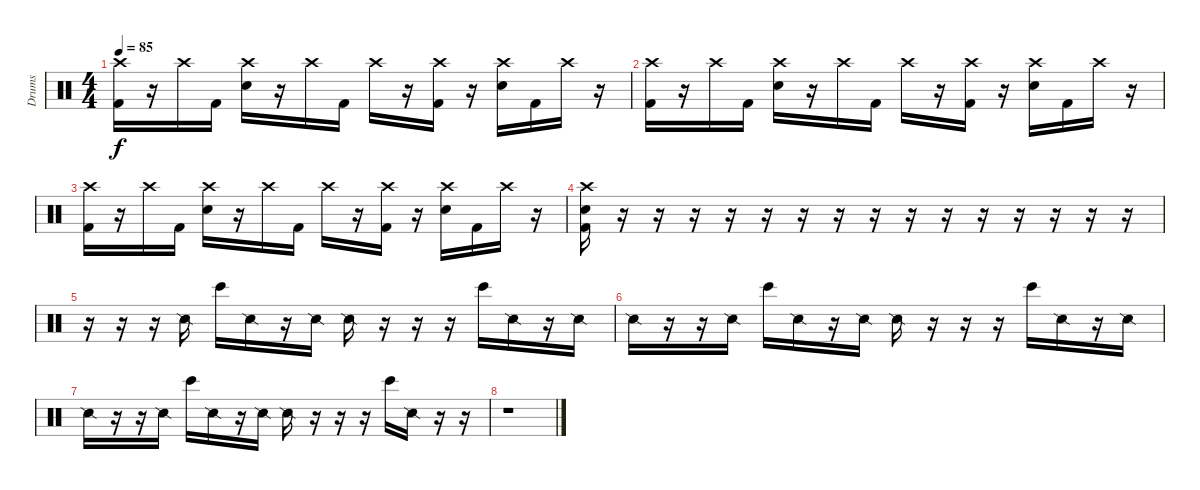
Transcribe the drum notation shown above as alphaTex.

\track ("Drums" "Drums") {instrument percussion}
\staff {score}
\articulation defaults
\ts (4 4)
\tempo 85
\clef neutral
\ks c
("Crash high (hit)" "Kick (hit) 2").16{dy f} r.16 "Crash high (hit)".16 "Kick (hit) 2".16 ("Crash high (hit)" "Electric Snare (hit)").16 r.16 "Crash high (hit)".16 "Kick (hit) 2".16 "Crash high (hit)".16 r.16 ("Crash high (hit)" "Kick (hit) 2").16 r.16 ("Crash high (hit)" "Electric Snare (hit)").16 "Kick (hit) 2".16 "Crash high (hit)".16 r.16 |
("Crash high (hit)" "Kick (hit) 2").16 r.16 "Crash high (hit)".16 "Kick (hit) 2".16 ("Crash high (hit)" "Electric Snare (hit)").16 r.16 "Crash high (hit)".16 "Kick (hit) 2".16 "Crash high (hit)".16 r.16 ("Crash high (hit)" "Kick (hit) 2").16 r.16 ("Crash high (hit)" "Electric Snare (hit)").16 "Kick (hit) 2".16 "Crash high (hit)".16 r.16 |
("Crash high (hit)" "Kick (hit) 2").16 r.16 "Crash high (hit)".16 "Kick (hit) 2".16 ("Crash high (hit)" "Electric Snare (hit)").16 r.16 "Crash high (hit)".16 "Kick (hit) 2".16 "Crash high (hit)".16 r.16 ("Crash high (hit)" "Kick (hit) 2").16 r.16 ("Crash high (hit)" "Electric Snare (hit)").16 "Kick (hit) 2".16 "Crash high (hit)".16 r.16 |
("Crash high (hit)" "Electric Snare (hit)" "Kick (hit) 2").16 r.16 r.16 r.16 r.16 r.16 r.16 r.16 r.16 r.16 r.16 r.16 r.16 r.16 r.16 r.16 |
r.16 r.16 r.16 "Snare (side stick) 2".16 "Bongo High (hit)".16 "Snare (side stick) 2".16 r.16 "Snare (side stick) 2".16 "Snare (side stick) 2".16 r.16 r.16 r.16 "Bongo High (hit)".16 "Snare (side stick) 2".16 r.16 "Snare (side stick) 2".16 |
"Snare (side stick) 2".16 r.16 r.16 "Snare (side stick) 2".16 "Bongo High (hit)".16 "Snare (side stick) 2".16 r.16 "Snare (side stick) 2".16 "Snare (side stick) 2".16 r.16 r.16 r.16 "Bongo High (hit)".16 "Snare (side stick) 2".16 r.16 "Snare (side stick) 2".16 |
"Snare (side stick) 2".16 r.16 r.16 "Snare (side stick) 2".16 "Bongo High (hit)".16 "Snare (side stick) 2".16 r.16 "Snare (side stick) 2".16 "Snare (side stick) 2".16 r.16 r.16 r.16 "Bongo High (hit)".16 "Snare (side stick) 2".16 r.16 r.16 |
r.1
